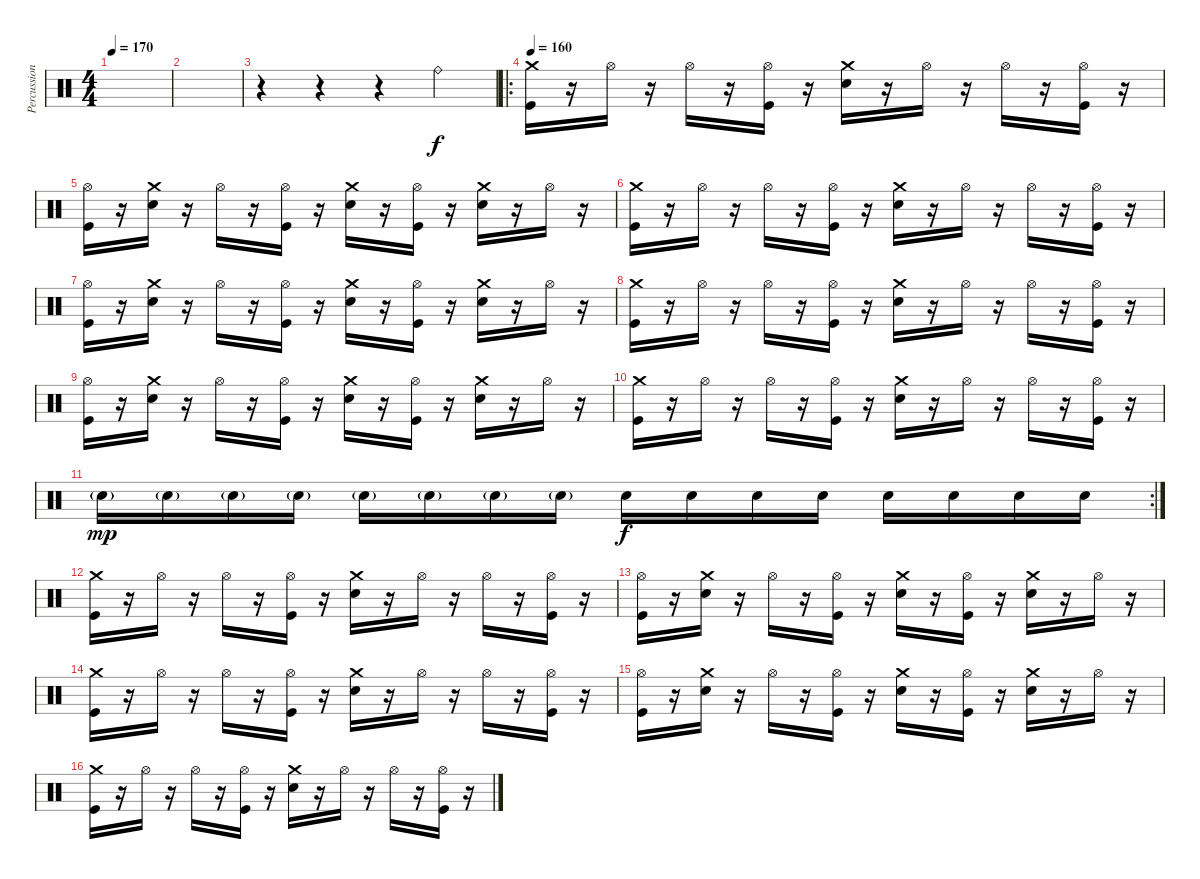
\track ("Percussion" "Percussion") {instrument percussion}
\staff {score}
\articulation defaults
\ts (4 4)
\tempo 170
\clef neutral
\ks c
|
|
r.4 r.4 r.4 "Ride (bell)".4 |
\ro
\tempo 160
("Crash medium (hit)" "Kick (hit)").16 r.16 "Hi-Hat (open)".16 r.16 "Hi-Hat (open)".16 r.16 ("Hi-Hat (open)" "Kick (hit)").16 r.16 ("Crash medium (hit)" "Snare (hit) 2").16 r.16 "Hi-Hat (open)".16 r.16 "Hi-Hat (open)".16 r.16 ("Hi-Hat (open)" "Kick (hit)").16 r.16 |
("Hi-Hat (open)" "Kick (hit)").16 r.16 ("Crash medium (hit)" "Snare (hit) 2").16 r.16 "Hi-Hat (open)".16 r.16 ("Hi-Hat (open)" "Kick (hit)").16 r.16 ("Crash medium (hit)" "Snare (hit) 2").16 r.16 ("Hi-Hat (open)" "Kick (hit)").16 r.16 ("Crash medium (hit)" "Snare (hit) 2").16 r.16 "Hi-Hat (open)".16 r.16 |
("Crash medium (hit)" "Kick (hit)").16 r.16 "Hi-Hat (open)".16 r.16 "Hi-Hat (open)".16 r.16 ("Hi-Hat (open)" "Kick (hit)").16 r.16 ("Crash medium (hit)" "Snare (hit) 2").16 r.16 "Hi-Hat (open)".16 r.16 "Hi-Hat (open)".16 r.16 ("Hi-Hat (open)" "Kick (hit)").16 r.16 |
("Hi-Hat (open)" "Kick (hit)").16 r.16 ("Crash medium (hit)" "Snare (hit) 2").16 r.16 "Hi-Hat (open)".16 r.16 ("Hi-Hat (open)" "Kick (hit)").16 r.16 ("Crash medium (hit)" "Snare (hit) 2").16 r.16 ("Hi-Hat (open)" "Kick (hit)").16 r.16 ("Crash medium (hit)" "Snare (hit) 2").16 r.16 "Hi-Hat (open)".16 r.16 |
("Crash medium (hit)" "Kick (hit)").16 r.16 "Hi-Hat (open)".16 r.16 "Hi-Hat (open)".16 r.16 ("Hi-Hat (open)" "Kick (hit)").16 r.16 ("Crash medium (hit)" "Snare (hit) 2").16 r.16 "Hi-Hat (open)".16 r.16 "Hi-Hat (open)".16 r.16 ("Hi-Hat (open)" "Kick (hit)").16 r.16 |
("Hi-Hat (open)" "Kick (hit)").16 r.16 ("Crash medium (hit)" "Snare (hit) 2").16 r.16 "Hi-Hat (open)".16 r.16 ("Hi-Hat (open)" "Kick (hit)").16 r.16 ("Crash medium (hit)" "Snare (hit) 2").16 r.16 ("Hi-Hat (open)" "Kick (hit)").16 r.16 ("Crash medium (hit)" "Snare (hit) 2").16 r.16 "Hi-Hat (open)".16 r.16 |
("Crash medium (hit)" "Kick (hit)").16 r.16 "Hi-Hat (open)".16 r.16 "Hi-Hat (open)".16 r.16 ("Hi-Hat (open)" "Kick (hit)").16 r.16 ("Crash medium (hit)" "Snare (hit) 2").16 r.16 "Hi-Hat (open)".16 r.16 "Hi-Hat (open)".16 r.16 ("Hi-Hat (open)" "Kick (hit)").16 r.16 |
\rc 2 "Snare (hit) 2"{g}.16{dy mp} "Snare (hit) 2"{g}.16 "Snare (hit) 2"{g}.16 "Snare (hit) 2"{g}.16 "Snare (hit) 2"{g}.16 "Snare (hit) 2"{g}.16 "Snare (hit) 2"{g}.16 "Snare (hit) 2"{g}.16 "Snare (hit) 2".16{dy f} "Snare (hit) 2".16 "Snare (hit) 2".16 "Snare (hit) 2".16 "Snare (hit) 2".16 "Snare (hit) 2".16 "Snare (hit) 2".16 "Snare (hit) 2".16
|
("Crash medium (hit)" "Kick (hit)").16 r.16 "Hi-Hat (open)".16 r.16 "Hi-Hat (open)".16 r.16 ("Hi-Hat (open)" "Kick (hit)").16 r.16 ("Crash medium (hit)" "Snare (hit) 2").16 r.16 "Hi-Hat (open)".16 r.16 "Hi-Hat (open)".16 r.16 ("Hi-Hat (open)" "Kick (hit)").16 r.16 |
("Hi-Hat (open)" "Kick (hit)").16 r.16 ("Crash medium (hit)" "Snare (hit) 2").16 r.16 "Hi-Hat (open)".16 r.16 ("Hi-Hat (open)" "Kick (hit)").16 r.16 ("Crash medium (hit)" "Snare (hit) 2").16 r.16 ("Hi-Hat (open)" "Kick (hit)").16 r.16 ("Crash medium (hit)" "Snare (hit) 2").16 r.16 "Hi-Hat (open)".16 r.16 |
("Crash medium (hit)" "Kick (hit)").16 r.16 "Hi-Hat (open)".16 r.16 "Hi-Hat (open)".16 r.16 ("Hi-Hat (open)" "Kick (hit)").16 r.16 ("Crash medium (hit)" "Snare (hit) 2").16 r.16 "Hi-Hat (open)".16 r.16 "Hi-Hat (open)".16 r.16 ("Hi-Hat (open)" "Kick (hit)").16 r.16 |
("Hi-Hat (open)" "Kick (hit)").16 r.16 ("Crash medium (hit)" "Snare (hit) 2").16 r.16 "Hi-Hat (open)".16 r.16 ("Hi-Hat (open)" "Kick (hit)").16 r.16 ("Crash medium (hit)" "Snare (hit) 2").16 r.16 ("Hi-Hat (open)" "Kick (hit)").16 r.16 ("Crash medium (hit)" "Snare (hit) 2").16 r.16 "Hi-Hat (open)".16 r.16 |
("Crash medium (hit)" "Kick (hit)").16 r.16 "Hi-Hat (open)".16 r.16 "Hi-Hat (open)".16 r.16 ("Hi-Hat (open)" "Kick (hit)").16 r.16 ("Crash medium (hit)" "Snare (hit) 2").16 r.16 "Hi-Hat (open)".16 r.16 "Hi-Hat (open)".16 r.16 ("Hi-Hat (open)" "Kick (hit)").16 r.16
